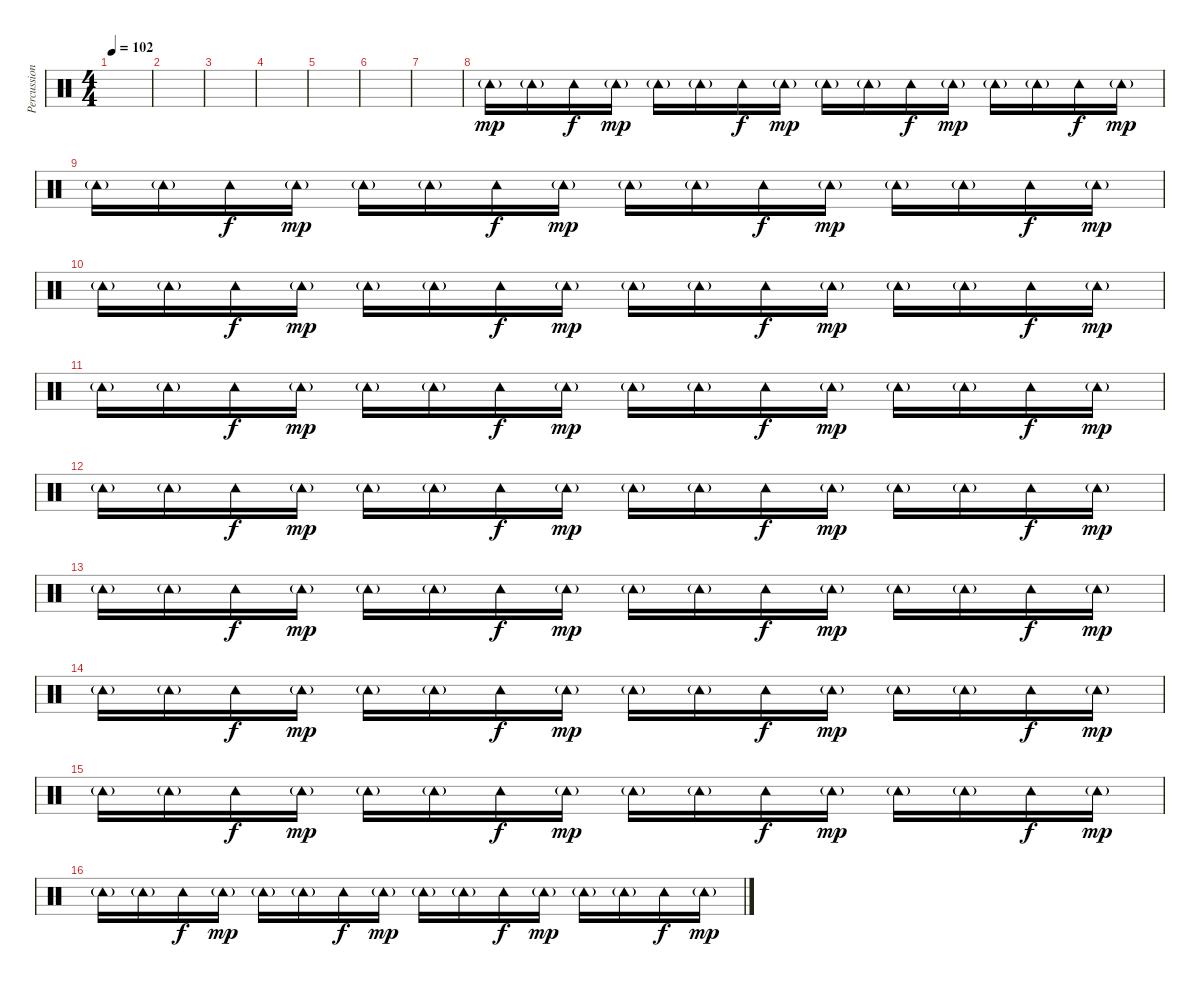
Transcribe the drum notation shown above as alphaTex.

\track ("Percussion" "Percussion") {instrument percussion}
\staff {score}
\articulation defaults
\ts (4 4)
\tempo 102
\clef neutral
\ks c
|
|
|
|
|
|
|
"Tambourine (hit)"{g}.16{dy mp} "Tambourine (hit)"{g}.16 "Tambourine (hit)".16{dy f} "Tambourine (hit)"{g}.16{dy mp} "Tambourine (hit)"{g}.16 "Tambourine (hit)"{g}.16 "Tambourine (hit)".16{dy f} "Tambourine (hit)"{g}.16{dy mp} "Tambourine (hit)"{g}.16 "Tambourine (hit)"{g}.16 "Tambourine (hit)".16{dy f} "Tambourine (hit)"{g}.16{dy mp} "Tambourine (hit)"{g}.16 "Tambourine (hit)"{g}.16 "Tambourine (hit)".16{dy f} "Tambourine (hit)"{g}.16{dy mp} |
"Tambourine (hit)"{g}.16 "Tambourine (hit)"{g}.16 "Tambourine (hit)".16{dy f} "Tambourine (hit)"{g}.16{dy mp} "Tambourine (hit)"{g}.16 "Tambourine (hit)"{g}.16 "Tambourine (hit)".16{dy f} "Tambourine (hit)"{g}.16{dy mp} "Tambourine (hit)"{g}.16 "Tambourine (hit)"{g}.16 "Tambourine (hit)".16{dy f} "Tambourine (hit)"{g}.16{dy mp} "Tambourine (hit)"{g}.16 "Tambourine (hit)"{g}.16 "Tambourine (hit)".16{dy f} "Tambourine (hit)"{g}.16{dy mp} |
"Tambourine (hit)"{g}.16 "Tambourine (hit)"{g}.16 "Tambourine (hit)".16{dy f} "Tambourine (hit)"{g}.16{dy mp} "Tambourine (hit)"{g}.16 "Tambourine (hit)"{g}.16 "Tambourine (hit)".16{dy f} "Tambourine (hit)"{g}.16{dy mp} "Tambourine (hit)"{g}.16 "Tambourine (hit)"{g}.16 "Tambourine (hit)".16{dy f} "Tambourine (hit)"{g}.16{dy mp} "Tambourine (hit)"{g}.16 "Tambourine (hit)"{g}.16 "Tambourine (hit)".16{dy f} "Tambourine (hit)"{g}.16{dy mp} |
"Tambourine (hit)"{g}.16 "Tambourine (hit)"{g}.16 "Tambourine (hit)".16{dy f} "Tambourine (hit)"{g}.16{dy mp} "Tambourine (hit)"{g}.16 "Tambourine (hit)"{g}.16 "Tambourine (hit)".16{dy f} "Tambourine (hit)"{g}.16{dy mp} "Tambourine (hit)"{g}.16 "Tambourine (hit)"{g}.16 "Tambourine (hit)".16{dy f} "Tambourine (hit)"{g}.16{dy mp} "Tambourine (hit)"{g}.16 "Tambourine (hit)"{g}.16 "Tambourine (hit)".16{dy f} "Tambourine (hit)"{g}.16{dy mp} |
"Tambourine (hit)"{g}.16 "Tambourine (hit)"{g}.16 "Tambourine (hit)".16{dy f} "Tambourine (hit)"{g}.16{dy mp} "Tambourine (hit)"{g}.16 "Tambourine (hit)"{g}.16 "Tambourine (hit)".16{dy f} "Tambourine (hit)"{g}.16{dy mp} "Tambourine (hit)"{g}.16 "Tambourine (hit)"{g}.16 "Tambourine (hit)".16{dy f} "Tambourine (hit)"{g}.16{dy mp} "Tambourine (hit)"{g}.16 "Tambourine (hit)"{g}.16 "Tambourine (hit)".16{dy f} "Tambourine (hit)"{g}.16{dy mp} |
"Tambourine (hit)"{g}.16 "Tambourine (hit)"{g}.16 "Tambourine (hit)".16{dy f} "Tambourine (hit)"{g}.16{dy mp} "Tambourine (hit)"{g}.16 "Tambourine (hit)"{g}.16 "Tambourine (hit)".16{dy f} "Tambourine (hit)"{g}.16{dy mp} "Tambourine (hit)"{g}.16 "Tambourine (hit)"{g}.16 "Tambourine (hit)".16{dy f} "Tambourine (hit)"{g}.16{dy mp} "Tambourine (hit)"{g}.16 "Tambourine (hit)"{g}.16 "Tambourine (hit)".16{dy f} "Tambourine (hit)"{g}.16{dy mp} |
"Tambourine (hit)"{g}.16 "Tambourine (hit)"{g}.16 "Tambourine (hit)".16{dy f} "Tambourine (hit)"{g}.16{dy mp} "Tambourine (hit)"{g}.16 "Tambourine (hit)"{g}.16 "Tambourine (hit)".16{dy f} "Tambourine (hit)"{g}.16{dy mp} "Tambourine (hit)"{g}.16 "Tambourine (hit)"{g}.16 "Tambourine (hit)".16{dy f} "Tambourine (hit)"{g}.16{dy mp} "Tambourine (hit)"{g}.16 "Tambourine (hit)"{g}.16 "Tambourine (hit)".16{dy f} "Tambourine (hit)"{g}.16{dy mp} |
"Tambourine (hit)"{g}.16 "Tambourine (hit)"{g}.16 "Tambourine (hit)".16{dy f} "Tambourine (hit)"{g}.16{dy mp} "Tambourine (hit)"{g}.16 "Tambourine (hit)"{g}.16 "Tambourine (hit)".16{dy f} "Tambourine (hit)"{g}.16{dy mp} "Tambourine (hit)"{g}.16 "Tambourine (hit)"{g}.16 "Tambourine (hit)".16{dy f} "Tambourine (hit)"{g}.16{dy mp} "Tambourine (hit)"{g}.16 "Tambourine (hit)"{g}.16 "Tambourine (hit)".16{dy f} "Tambourine (hit)"{g}.16{dy mp} |
"Tambourine (hit)"{g}.16 "Tambourine (hit)"{g}.16 "Tambourine (hit)".16{dy f} "Tambourine (hit)"{g}.16{dy mp} "Tambourine (hit)"{g}.16 "Tambourine (hit)"{g}.16 "Tambourine (hit)".16{dy f} "Tambourine (hit)"{g}.16{dy mp} "Tambourine (hit)"{g}.16 "Tambourine (hit)"{g}.16 "Tambourine (hit)".16{dy f} "Tambourine (hit)"{g}.16{dy mp} "Tambourine (hit)"{g}.16 "Tambourine (hit)"{g}.16 "Tambourine (hit)".16{dy f} "Tambourine (hit)"{g}.16{dy mp}
